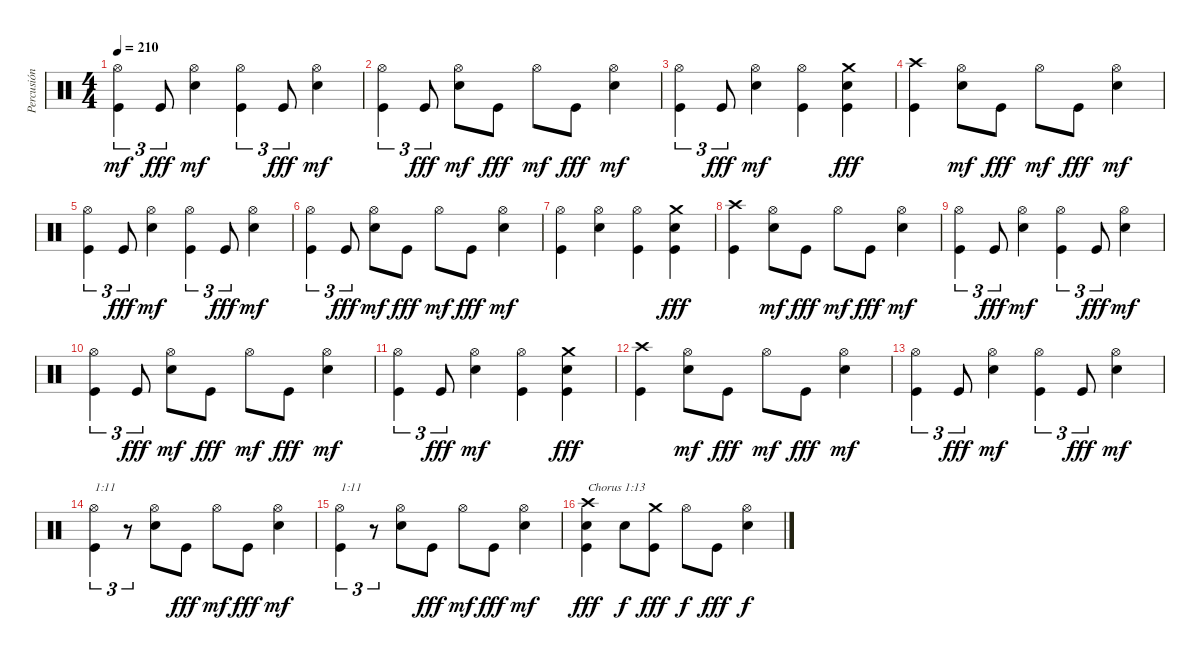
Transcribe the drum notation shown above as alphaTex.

\track ("Percusión" "Percusión") {instrument percussion}
\staff {score}
\articulation defaults
\ts (4 4)
\tempo 210
\clef neutral
\ks c
("Kick (hit)" "Hi-Hat (open)").4{tu (3 2) dy mf} "Kick (hit)".8{tu (3 2) dy fff} ("Electric Snare (hit)" "Hi-Hat (open)").4{dy mf} ("Kick (hit)" "Hi-Hat (open)").4{tu (3 2)} "Kick (hit)".8{tu (3 2) dy fff} ("Electric Snare (hit)" "Hi-Hat (open)").4{dy mf} |
("Kick (hit)" "Hi-Hat (open)").4{tu (3 2)} "Kick (hit)".8{tu (3 2) dy fff} ("Electric Snare (hit)" "Hi-Hat (open)").8{dy mf} "Kick (hit)".8{dy fff} "Hi-Hat (open)".8{dy mf} "Kick (hit)".8{dy fff} ("Electric Snare (hit)" "Hi-Hat (open)").4{dy mf} |
("Kick (hit)" "Hi-Hat (open)").4{tu (3 2)} "Kick (hit)".8{tu (3 2) dy fff} ("Electric Snare (hit)" "Hi-Hat (open)").4{dy mf} ("Kick (hit)" "Hi-Hat (open)").4 ("Kick (hit)" "Electric Snare (hit)" "Crash medium (hit)").4{dy fff} |
("Kick (hit)" "Crash high (hit)").4 ("Electric Snare (hit)" "Hi-Hat (open)").8{dy mf} "Kick (hit)".8{dy fff} "Hi-Hat (open)".8{dy mf} "Kick (hit)".8{dy fff} ("Electric Snare (hit)" "Hi-Hat (open)").4{dy mf} |
("Kick (hit)" "Hi-Hat (open)").4{tu (3 2)} "Kick (hit)".8{tu (3 2) dy fff} ("Electric Snare (hit)" "Hi-Hat (open)").4{dy mf} ("Kick (hit)" "Hi-Hat (open)").4{tu (3 2)} "Kick (hit)".8{tu (3 2) dy fff} ("Electric Snare (hit)" "Hi-Hat (open)").4{dy mf} |
("Kick (hit)" "Hi-Hat (open)").4{tu (3 2)} "Kick (hit)".8{tu (3 2) dy fff} ("Electric Snare (hit)" "Hi-Hat (open)").8{dy mf} "Kick (hit)".8{dy fff} "Hi-Hat (open)".8{dy mf} "Kick (hit)".8{dy fff} ("Electric Snare (hit)" "Hi-Hat (open)").4{dy mf} |
("Kick (hit)" "Hi-Hat (open)").4 ("Electric Snare (hit)" "Hi-Hat (open)").4 ("Kick (hit)" "Hi-Hat (open)").4 ("Kick (hit)" "Electric Snare (hit)" "Crash medium (hit)").4{dy fff} |
("Kick (hit)" "Crash high (hit)").4 ("Electric Snare (hit)" "Hi-Hat (open)").8{dy mf} "Kick (hit)".8{dy fff} "Hi-Hat (open)".8{dy mf} "Kick (hit)".8{dy fff} ("Electric Snare (hit)" "Hi-Hat (open)").4{dy mf} |
("Kick (hit)" "Hi-Hat (open)").4{tu (3 2)} "Kick (hit)".8{tu (3 2) dy fff} ("Electric Snare (hit)" "Hi-Hat (open)").4{dy mf} ("Kick (hit)" "Hi-Hat (open)").4{tu (3 2)} "Kick (hit)".8{tu (3 2) dy fff} ("Electric Snare (hit)" "Hi-Hat (open)").4{dy mf} |
("Kick (hit)" "Hi-Hat (open)").4{tu (3 2)} "Kick (hit)".8{tu (3 2) dy fff} ("Electric Snare (hit)" "Hi-Hat (open)").8{dy mf} "Kick (hit)".8{dy fff} "Hi-Hat (open)".8{dy mf} "Kick (hit)".8{dy fff} ("Electric Snare (hit)" "Hi-Hat (open)").4{dy mf} |
("Kick (hit)" "Hi-Hat (open)").4{tu (3 2)} "Kick (hit)".8{tu (3 2) dy fff} ("Electric Snare (hit)" "Hi-Hat (open)").4{dy mf} ("Kick (hit)" "Hi-Hat (open)").4 ("Kick (hit)" "Electric Snare (hit)" "Crash medium (hit)").4{dy fff} |
("Kick (hit)" "Crash high (hit)").4 ("Electric Snare (hit)" "Hi-Hat (open)").8{dy mf} "Kick (hit)".8{dy fff} "Hi-Hat (open)".8{dy mf} "Kick (hit)".8{dy fff} ("Electric Snare (hit)" "Hi-Hat (open)").4{dy mf} |
("Kick (hit)" "Hi-Hat (open)").4{tu (3 2)} "Kick (hit)".8{tu (3 2) dy fff} ("Electric Snare (hit)" "Hi-Hat (open)").4{dy mf} ("Kick (hit)" "Hi-Hat (open)").4{tu (3 2)} "Kick (hit)".8{tu (3 2) dy fff} ("Electric Snare (hit)" "Hi-Hat (open)").4{dy mf} |
("Kick (hit)" "Hi-Hat (open)").4{tu (3 2) txt "1:11"} r.8{tu (3 2)} ("Electric Snare (hit)" "Hi-Hat (open)").8 "Kick (hit)".8{dy fff} "Hi-Hat (open)".8{dy mf} "Kick (hit)".8{dy fff} ("Electric Snare (hit)" "Hi-Hat (open)").4{dy mf} |
("Kick (hit)" "Hi-Hat (open)").4{tu (3 2) txt "1:11"} r.8{tu (3 2)} ("Electric Snare (hit)" "Hi-Hat (open)").8 "Kick (hit)".8{dy fff} "Hi-Hat (open)".8{dy mf} "Kick (hit)".8{dy fff} ("Electric Snare (hit)" "Hi-Hat (open)").4{dy mf} |
("Kick (hit)" "Electric Snare (hit)" "Crash high (hit)").4{txt "Chorus 1:13" dy fff} "Electric Snare (hit)".8{dy f} ("Kick (hit)" "Crash medium (hit)").8{dy fff} "Hi-Hat (open)".8{dy f} "Kick (hit)".8{dy fff} ("Electric Snare (hit)" "Hi-Hat (open)").4{dy f}
